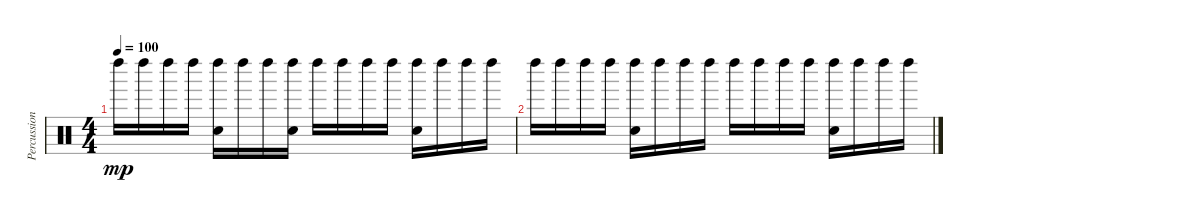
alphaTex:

\track ("Percussion" "Percussion") {instrument percussion}
\staff {score}
\articulation defaults
\ts (4 4)
\tempo 100
\clef neutral
\ks c "Left Maraca (hit)".16{dy mp} "Left Maraca (hit)".16 "Left Maraca (hit)".16 "Left Maraca (hit)".16
("Electric Snare (hit)" "Left Maraca (hit)").16 "Left Maraca (hit)".16 "Left Maraca (hit)".16 ("Electric Snare (hit)" "Left Maraca (hit)").16 "Left Maraca (hit)".16 "Left Maraca (hit)".16 "Left Maraca (hit)".16 "Left Maraca (hit)".16 ("Electric Snare (hit)" "Left Maraca (hit)").16 "Left Maraca (hit)".16 "Left Maraca (hit)".16 "Left Maraca (hit)".16 |
"Left Maraca (hit)".16 "Left Maraca (hit)".16 "Left Maraca (hit)".16 "Left Maraca (hit)".16 ("Electric Snare (hit)" "Left Maraca (hit)").16 "Left Maraca (hit)".16 "Left Maraca (hit)".16 "Left Maraca (hit)".16 "Left Maraca (hit)".16 "Left Maraca (hit)".16 "Left Maraca (hit)".16 "Left Maraca (hit)".16 ("Electric Snare (hit)" "Left Maraca (hit)").16 "Left Maraca (hit)".16 "Left Maraca (hit)".16 "Left Maraca (hit)".16
